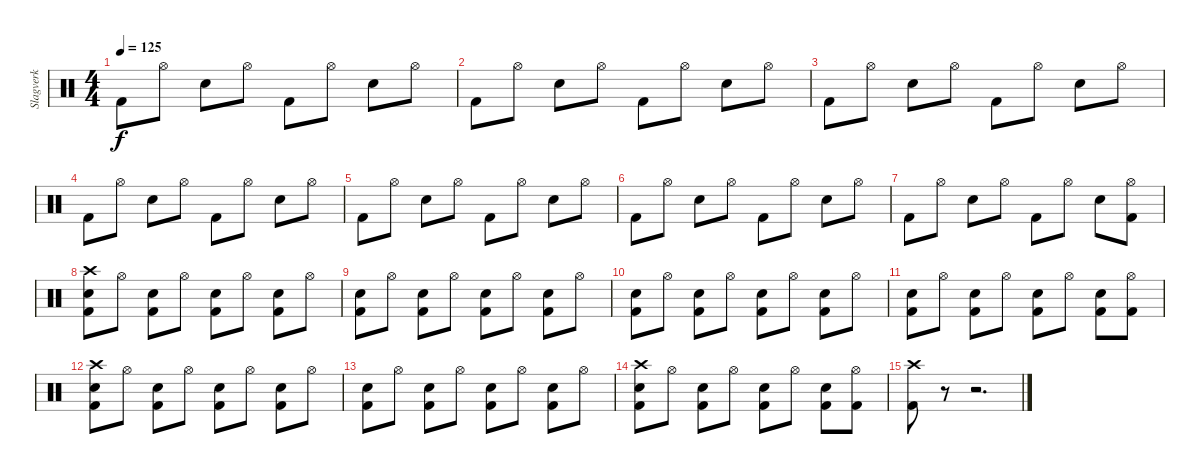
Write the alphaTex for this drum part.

\track ("Slagverk" "Slagverk") {instrument percussion}
\staff {score}
\articulation defaults
\ts (4 4)
\tempo 125
\clef neutral
\ks c "Kick (hit) 2".8{dy f} "Hi-Hat (open)".8 "Electric Snare (hit)".8 "Hi-Hat (open)".8 "Kick (hit) 2".8 "Hi-Hat (open)".8 "Electric Snare (hit)".8 "Hi-Hat (open)".8
|
"Kick (hit) 2".8 "Hi-Hat (open)".8 "Electric Snare (hit)".8 "Hi-Hat (open)".8 "Kick (hit) 2".8 "Hi-Hat (open)".8 "Electric Snare (hit)".8 "Hi-Hat (open)".8 |
"Kick (hit) 2".8 "Hi-Hat (open)".8 "Electric Snare (hit)".8 "Hi-Hat (open)".8 "Kick (hit) 2".8 "Hi-Hat (open)".8 "Electric Snare (hit)".8 "Hi-Hat (open)".8 |
"Kick (hit) 2".8 "Hi-Hat (open)".8 "Electric Snare (hit)".8 "Hi-Hat (open)".8 "Kick (hit) 2".8 "Hi-Hat (open)".8 "Electric Snare (hit)".8 "Hi-Hat (open)".8 |
"Kick (hit) 2".8 "Hi-Hat (open)".8 "Electric Snare (hit)".8 "Hi-Hat (open)".8 "Kick (hit) 2".8 "Hi-Hat (open)".8 "Electric Snare (hit)".8 "Hi-Hat (open)".8 |
"Kick (hit) 2".8 "Hi-Hat (open)".8 "Electric Snare (hit)".8 "Hi-Hat (open)".8 "Kick (hit) 2".8 "Hi-Hat (open)".8 "Electric Snare (hit)".8 "Hi-Hat (open)".8 |
"Kick (hit) 2".8 "Hi-Hat (open)".8 "Electric Snare (hit)".8 "Hi-Hat (open)".8 "Kick (hit) 2".8 "Hi-Hat (open)".8 "Electric Snare (hit)".8 ("Hi-Hat (open)" "Kick (hit) 2").8 |
("Crash high (hit)" "Kick (hit) 2" "Electric Snare (hit)").8 "Hi-Hat (open)".8 ("Kick (hit) 2" "Electric Snare (hit)").8 "Hi-Hat (open)".8 ("Kick (hit) 2" "Electric Snare (hit)").8 "Hi-Hat (open)".8 ("Kick (hit) 2" "Electric Snare (hit)").8 "Hi-Hat (open)".8 |
("Kick (hit) 2" "Electric Snare (hit)").8 "Hi-Hat (open)".8 ("Kick (hit) 2" "Electric Snare (hit)").8 "Hi-Hat (open)".8 ("Kick (hit) 2" "Electric Snare (hit)").8 "Hi-Hat (open)".8 ("Kick (hit) 2" "Electric Snare (hit)").8 "Hi-Hat (open)".8 |
("Kick (hit) 2" "Electric Snare (hit)").8 "Hi-Hat (open)".8 ("Kick (hit) 2" "Electric Snare (hit)").8 "Hi-Hat (open)".8 ("Kick (hit) 2" "Electric Snare (hit)").8 "Hi-Hat (open)".8 ("Kick (hit) 2" "Electric Snare (hit)").8 "Hi-Hat (open)".8 |
("Kick (hit) 2" "Electric Snare (hit)").8 "Hi-Hat (open)".8 ("Kick (hit) 2" "Electric Snare (hit)").8 "Hi-Hat (open)".8 ("Kick (hit) 2" "Electric Snare (hit)").8 "Hi-Hat (open)".8 ("Kick (hit) 2" "Electric Snare (hit)").8 ("Kick (hit) 2" "Hi-Hat (open)").8 |
("Crash high (hit)" "Kick (hit) 2" "Electric Snare (hit)").8 "Hi-Hat (open)".8 ("Kick (hit) 2" "Electric Snare (hit)").8 "Hi-Hat (open)".8 ("Kick (hit) 2" "Electric Snare (hit)").8 "Hi-Hat (open)".8 ("Kick (hit) 2" "Electric Snare (hit)").8 "Hi-Hat (open)".8 |
("Kick (hit) 2" "Electric Snare (hit)").8 "Hi-Hat (open)".8 ("Kick (hit) 2" "Electric Snare (hit)").8 "Hi-Hat (open)".8 ("Kick (hit) 2" "Electric Snare (hit)").8 "Hi-Hat (open)".8 ("Kick (hit) 2" "Electric Snare (hit)").8 "Hi-Hat (open)".8 |
("Crash high (hit)" "Kick (hit) 2" "Electric Snare (hit)").8 "Hi-Hat (open)".8 ("Kick (hit) 2" "Electric Snare (hit)").8 "Hi-Hat (open)".8 ("Kick (hit) 2" "Electric Snare (hit)").8 "Hi-Hat (open)".8 ("Kick (hit) 2" "Electric Snare (hit)").8 ("Kick (hit) 2" "Hi-Hat (open)").8 |
("Crash high (hit)" "Kick (hit) 2").8 r.8{volume 4} r.2{d}
